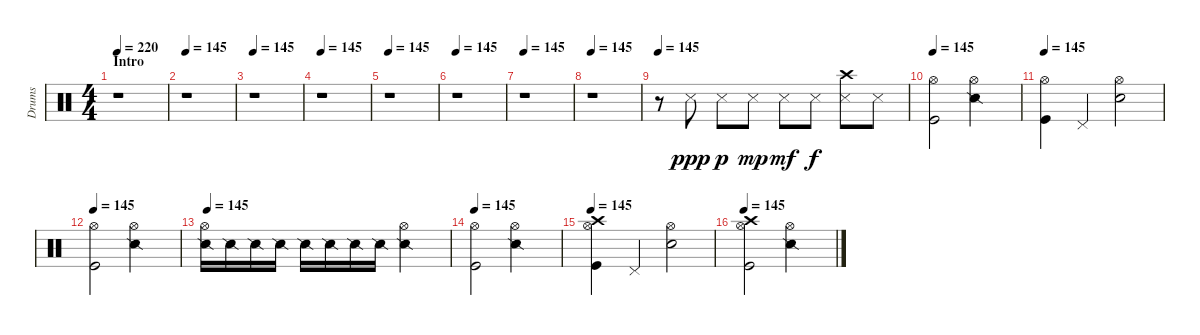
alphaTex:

\track ("Drums" "Drums") {instrument percussion}
\staff {score}
\articulation defaults
\ts (4 4)
\section ("" "Intro")
\tempo 220
\tempo 145
\tempo 220
\clef neutral
\ks c
r.1{dy ppp} |
\tempo 145
r.1 |
\tempo 145
r.1 |
\tempo 145
r.1 |
\tempo 145
r.1 |
\tempo 145
r.1 |
\tempo 145
r.1 |
\tempo 145
r.1 |
\tempo 145
r.8 "Metronome (hit)".8{volume 12} "Metronome (hit)".8{dy p} "Metronome (hit)".8{dy mp} "Metronome (hit)".8{dy mf} "Metronome (hit)".8{dy f} ("Crash high (hit)" "Metronome (hit)").8 "Metronome (hit)".8 |
\tempo 145
("Hi-Hat (open)" "Kick (hit)").2 ("Hi-Hat (open)" "Snare (side stick) 2").2 |
\tempo 145
("Hi-Hat (open)" "Kick (hit)").4 "Pedal Hi-Hat (hit)".4 ("Hi-Hat (open)" "Snare (hit) 2").2 |
\tempo 145
("Hi-Hat (open)" "Kick (hit)").2 ("Hi-Hat (open)" "Snare (side stick) 2").2 |
\tempo 145
("Snare (side stick) 2" "Hi-Hat (open)").16 "Snare (side stick) 2".16 "Snare (side stick) 2".16 "Snare (side stick) 2".16 "Snare (side stick) 2".16 "Snare (side stick) 2".16 "Snare (side stick) 2".16 "Snare (side stick) 2".16 ("Hi-Hat (open)" "Snare (side stick) 2").2 |
\tempo 145
("Hi-Hat (open)" "Kick (hit)").2 ("Hi-Hat (open)" "Snare (side stick) 2").2 |
\tempo 145
("Hi-Hat (open)" "Crash high (hit)" "Kick (hit)").4 "Pedal Hi-Hat (hit)".4 ("Hi-Hat (open)" "Snare (hit) 2").2 |
\tempo 145
("Hi-Hat (open)" "Crash high (hit)" "Kick (hit)").2 ("Hi-Hat (open)" "Snare (side stick) 2").2
